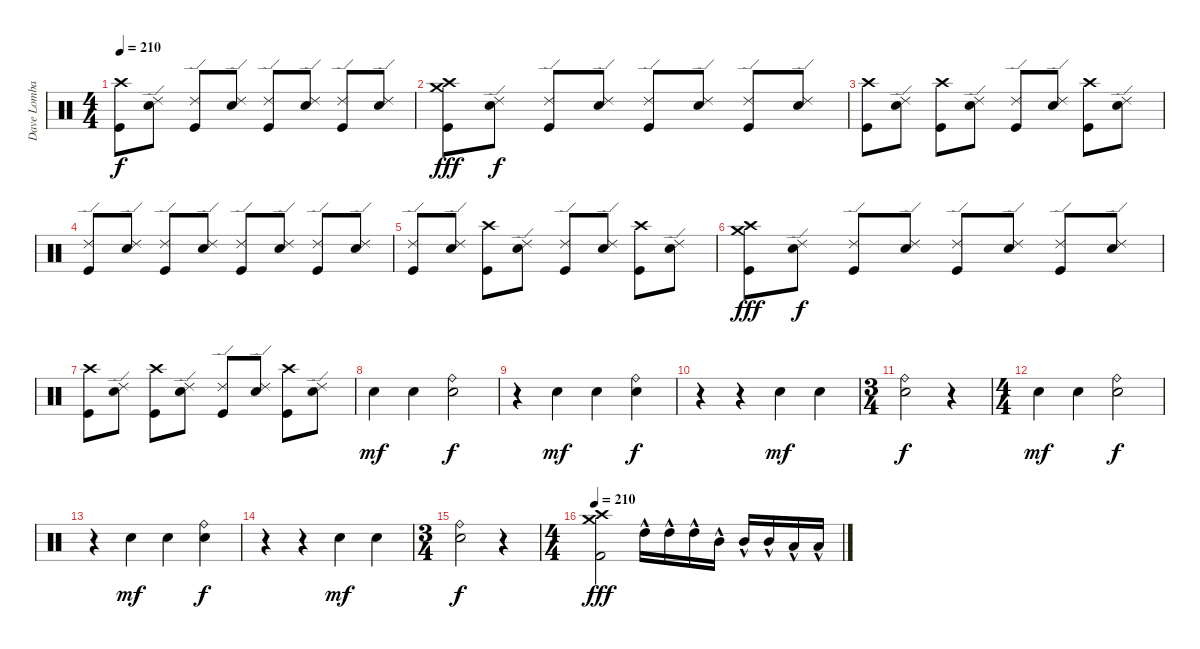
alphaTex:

\track ("Dave Lombardo:" "Dave Lomba") {instrument percussion}
\staff {score}
\articulation defaults
\ts (4 4)
\tempo 210
\clef neutral
\ks c
("Crash high (hit)" "Kick (hit)").8{dy f} ("Ride (edge) 2" "Snare (hit) 2").8 ("Ride (edge) 2" "Kick (hit)").8 ("Ride (edge) 2" "Snare (hit) 2").8 ("Ride (edge) 2" "Kick (hit)").8 ("Ride (edge) 2" "Snare (hit) 2").8 ("Ride (edge) 2" "Kick (hit)").8 ("Ride (edge) 2" "Snare (hit) 2").8 |
("Crash medium (hit)" "Crash high (hit)" "Kick (hit)").8{dy fff} ("Ride (edge) 2" "Snare (hit) 2").8{dy f} ("Ride (edge) 2" "Kick (hit)").8 ("Ride (edge) 2" "Snare (hit) 2").8 ("Ride (edge) 2" "Kick (hit)").8 ("Ride (edge) 2" "Snare (hit) 2").8 ("Ride (edge) 2" "Kick (hit)").8 ("Ride (edge) 2" "Snare (hit) 2").8 |
("Crash high (hit)" "Kick (hit)").8 ("Ride (edge) 2" "Snare (hit) 2").8 ("Crash high (hit)" "Kick (hit)").8 ("Ride (edge) 2" "Snare (hit) 2").8 ("Ride (edge) 2" "Kick (hit)").8 ("Ride (edge) 2" "Snare (hit) 2").8 ("Crash high (hit)" "Kick (hit)").8 ("Ride (edge) 2" "Snare (hit) 2").8 |
("Ride (edge) 2" "Kick (hit)").8 ("Ride (edge) 2" "Snare (hit) 2").8 ("Ride (edge) 2" "Kick (hit)").8 ("Ride (edge) 2" "Snare (hit) 2").8 ("Ride (edge) 2" "Kick (hit)").8 ("Ride (edge) 2" "Snare (hit) 2").8 ("Ride (edge) 2" "Kick (hit)").8 ("Ride (edge) 2" "Snare (hit) 2").8 |
("Ride (edge) 2" "Kick (hit)").8 ("Ride (edge) 2" "Snare (hit) 2").8 ("Crash high (hit)" "Kick (hit)").8 ("Ride (edge) 2" "Snare (hit) 2").8 ("Ride (edge) 2" "Kick (hit)").8 ("Ride (edge) 2" "Snare (hit) 2").8 ("Crash high (hit)" "Kick (hit)").8 ("Ride (edge) 2" "Snare (hit) 2").8 |
("Crash medium (hit)" "Crash high (hit)" "Kick (hit)").8{dy fff} ("Ride (edge) 2" "Snare (hit) 2").8{dy f} ("Ride (edge) 2" "Kick (hit)").8 ("Ride (edge) 2" "Snare (hit) 2").8 ("Ride (edge) 2" "Kick (hit)").8 ("Ride (edge) 2" "Snare (hit) 2").8 ("Ride (edge) 2" "Kick (hit)").8 ("Ride (edge) 2" "Snare (hit) 2").8 |
("Crash high (hit)" "Kick (hit)").8 ("Ride (edge) 2" "Snare (hit) 2").8 ("Crash high (hit)" "Kick (hit)").8 ("Ride (edge) 2" "Snare (hit) 2").8 ("Ride (edge) 2" "Kick (hit)").8 ("Ride (edge) 2" "Snare (hit) 2").8 ("Crash high (hit)" "Kick (hit)").8 ("Ride (edge) 2" "Snare (hit) 2").8 |
"Snare (hit) 2".4{dy mf} "Snare (hit) 2".4 ("Ride (bell)" "Electric Snare (hit)").2{dy f} |
r.4 "Snare (hit) 2".4{dy mf} "Snare (hit) 2".4 ("Ride (bell)" "Electric Snare (hit)").4{dy f} |
r.4 r.4 "Snare (hit) 2".4{dy mf} "Snare (hit) 2".4 |
\ts (3 4)
("Ride (bell)" "Electric Snare (hit)").2{dy f} r.4 |
\ts (4 4)
"Snare (hit) 2".4{dy mf} "Snare (hit) 2".4 ("Ride (bell)" "Electric Snare (hit)").2{dy f} |
r.4 "Snare (hit) 2".4{dy mf} "Snare (hit) 2".4 ("Ride (bell)" "Electric Snare (hit)").4{dy f} |
r.4 r.4 "Snare (hit) 2".4{dy mf} "Snare (hit) 2".4 |
\ts (3 4)
("Ride (bell)" "Electric Snare (hit)").2{dy f} r.4 |
\ts (4 4)
\tempo 210
("Crash high (hit)" "Crash medium (hit)" "Kick (hit) 2").2{dy fff} "High Tom (hit)"{hac}.16 "High Tom (hit)"{hac}.16 "High Tom (hit)"{hac}.16 "Mid Tom (hit)"{hac}.16 "Mid Tom (hit)"{hac}.16 "Mid Tom (hit)"{hac}.16 "Low Tom (hit)"{hac}.16 "Low Tom (hit)"{hac}.16
